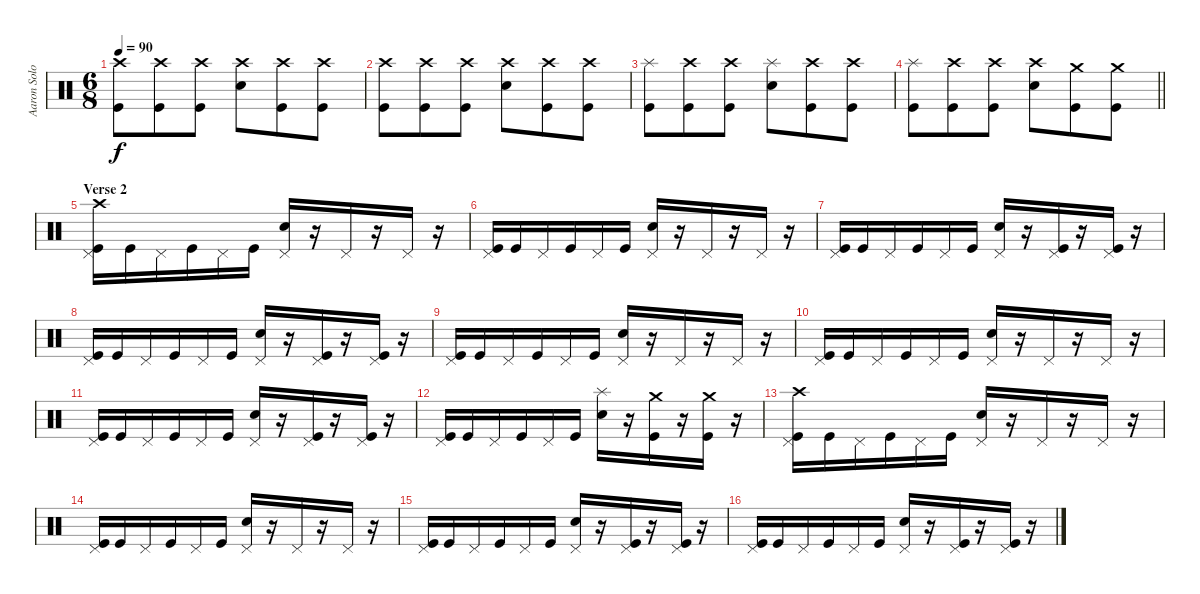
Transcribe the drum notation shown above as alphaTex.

\track ("Aaron Solowoniuk" "Aaron Solo") {instrument percussion}
\staff {score}
\articulation defaults
\ts (6 8)
\tempo 90
\clef neutral
\ks c
("Crash high (hit)" "Kick (hit)").8{dy f} ("Crash high (hit)" "Kick (hit)").8 ("Crash high (hit)" "Kick (hit)").8 ("Crash high (hit)" "Electric Snare (hit)").8 ("Crash high (hit)" "Kick (hit)").8 ("Crash high (hit)" "Kick (hit)").8 |
("Crash high (hit)" "Kick (hit)").8 ("Crash high (hit)" "Kick (hit)").8 ("Crash high (hit)" "Kick (hit)").8 ("Crash high (hit)" "Electric Snare (hit)").8 ("Crash high (hit)" "Kick (hit)").8 ("Crash high (hit)" "Kick (hit)").8 |
("Splash (hit)" "Kick (hit)").8 ("Crash high (hit)" "Kick (hit)").8 ("Crash high (hit)" "Kick (hit)").8 ("Splash (hit)" "Electric Snare (hit)").8 ("Crash high (hit)" "Kick (hit)").8 ("Crash high (hit)" "Kick (hit)").8 |
\barLineRight lightlight
("Splash (hit)" "Kick (hit)").8 ("Crash high (hit)" "Kick (hit)").8 ("Crash high (hit)" "Kick (hit)").8 ("Crash high (hit)" "Electric Snare (hit)").8 ("Crash medium (hit)" "Kick (hit)").8 ("Crash medium (hit)" "Kick (hit)").8 |
\section ("" "Verse 2")
("Crash high (hit)" "Pedal Hi-Hat (hit)" "Kick (hit)").16 "Kick (hit)".16 "Pedal Hi-Hat (hit)".16 "Kick (hit)".16 "Pedal Hi-Hat (hit)".16 "Kick (hit)".16 ("Pedal Hi-Hat (hit)" "Electric Snare (hit)").16 r.16 "Pedal Hi-Hat (hit)".16 r.16 "Pedal Hi-Hat (hit)".16 r.16 |
("Pedal Hi-Hat (hit)" "Kick (hit)").16 "Kick (hit)".16 "Pedal Hi-Hat (hit)".16 "Kick (hit)".16 "Pedal Hi-Hat (hit)".16 "Kick (hit)".16 ("Pedal Hi-Hat (hit)" "Electric Snare (hit)").16 r.16 "Pedal Hi-Hat (hit)".16 r.16 "Pedal Hi-Hat (hit)".16 r.16 |
("Pedal Hi-Hat (hit)" "Kick (hit)").16 "Kick (hit)".16 "Pedal Hi-Hat (hit)".16 "Kick (hit)".16 "Pedal Hi-Hat (hit)".16 "Kick (hit)".16 ("Pedal Hi-Hat (hit)" "Electric Snare (hit)").16 r.16 ("Pedal Hi-Hat (hit)" "Kick (hit)").16 r.16 ("Pedal Hi-Hat (hit)" "Kick (hit)").16 r.16 |
("Pedal Hi-Hat (hit)" "Kick (hit)").16 "Kick (hit)".16 "Pedal Hi-Hat (hit)".16 "Kick (hit)".16 "Pedal Hi-Hat (hit)".16 "Kick (hit)".16 ("Pedal Hi-Hat (hit)" "Electric Snare (hit)").16 r.16 ("Pedal Hi-Hat (hit)" "Kick (hit)").16 r.16 ("Pedal Hi-Hat (hit)" "Kick (hit)").16 r.16 |
("Pedal Hi-Hat (hit)" "Kick (hit)").16 "Kick (hit)".16 "Pedal Hi-Hat (hit)".16 "Kick (hit)".16 "Pedal Hi-Hat (hit)".16 "Kick (hit)".16 ("Pedal Hi-Hat (hit)" "Electric Snare (hit)").16 r.16 "Pedal Hi-Hat (hit)".16 r.16 "Pedal Hi-Hat (hit)".16 r.16 |
("Pedal Hi-Hat (hit)" "Kick (hit)").16 "Kick (hit)".16 "Pedal Hi-Hat (hit)".16 "Kick (hit)".16 "Pedal Hi-Hat (hit)".16 "Kick (hit)".16 ("Pedal Hi-Hat (hit)" "Electric Snare (hit)").16 r.16 "Pedal Hi-Hat (hit)".16 r.16 "Pedal Hi-Hat (hit)".16 r.16 |
("Pedal Hi-Hat (hit)" "Kick (hit)").16 "Kick (hit)".16 "Pedal Hi-Hat (hit)".16 "Kick (hit)".16 "Pedal Hi-Hat (hit)".16 "Kick (hit)".16 ("Pedal Hi-Hat (hit)" "Electric Snare (hit)").16 r.16 ("Pedal Hi-Hat (hit)" "Kick (hit)").16 r.16 ("Pedal Hi-Hat (hit)" "Kick (hit)").16 r.16 |
("Pedal Hi-Hat (hit)" "Kick (hit)").16 "Kick (hit)".16 "Pedal Hi-Hat (hit)".16 "Kick (hit)".16 "Pedal Hi-Hat (hit)".16 "Kick (hit)".16 ("Splash (hit)" "Electric Snare (hit)").16 r.16 ("Crash medium (hit)" "Kick (hit)").16 r.16 ("Crash medium (hit)" "Kick (hit)").16 r.16 |
("Crash high (hit)" "Pedal Hi-Hat (hit)" "Kick (hit)").16 "Kick (hit)".16 "Pedal Hi-Hat (hit)".16 "Kick (hit)".16 "Pedal Hi-Hat (hit)".16 "Kick (hit)".16 ("Pedal Hi-Hat (hit)" "Electric Snare (hit)").16 r.16 "Pedal Hi-Hat (hit)".16 r.16 "Pedal Hi-Hat (hit)".16 r.16 |
("Pedal Hi-Hat (hit)" "Kick (hit)").16 "Kick (hit)".16 "Pedal Hi-Hat (hit)".16 "Kick (hit)".16 "Pedal Hi-Hat (hit)".16 "Kick (hit)".16 ("Pedal Hi-Hat (hit)" "Electric Snare (hit)").16 r.16 "Pedal Hi-Hat (hit)".16 r.16 "Pedal Hi-Hat (hit)".16 r.16 |
("Pedal Hi-Hat (hit)" "Kick (hit)").16 "Kick (hit)".16 "Pedal Hi-Hat (hit)".16 "Kick (hit)".16 "Pedal Hi-Hat (hit)".16 "Kick (hit)".16 ("Pedal Hi-Hat (hit)" "Electric Snare (hit)").16 r.16 ("Pedal Hi-Hat (hit)" "Kick (hit)").16 r.16 ("Pedal Hi-Hat (hit)" "Kick (hit)").16 r.16 |
("Pedal Hi-Hat (hit)" "Kick (hit)").16 "Kick (hit)".16 "Pedal Hi-Hat (hit)".16 "Kick (hit)".16 "Pedal Hi-Hat (hit)".16 "Kick (hit)".16 ("Pedal Hi-Hat (hit)" "Electric Snare (hit)").16 r.16 ("Pedal Hi-Hat (hit)" "Kick (hit)").16 r.16 ("Pedal Hi-Hat (hit)" "Kick (hit)").16 r.16
